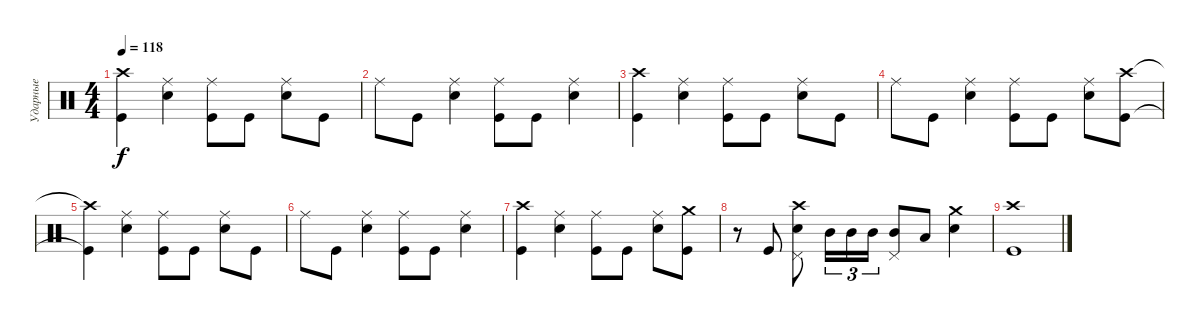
\track ("Ударные" "Ударные") {instrument percussion}
\staff {score}
\articulation defaults
\ts (4 4)
\tempo 118
\clef neutral
\ks c
("Crash high (hit)" "Kick (hit)").4{dy f} ("Ride (middle)" "Snare (hit) 2").4 ("Ride (middle)" "Kick (hit)").8 "Kick (hit)".8 ("Ride (middle)" "Snare (hit) 2").8 "Kick (hit)".8 |
"Ride (middle)".8 "Kick (hit)".8 ("Ride (middle)" "Snare (hit) 2").4 ("Ride (middle)" "Kick (hit)").8 "Kick (hit)".8 ("Ride (middle)" "Snare (hit) 2").4 |
("Crash high (hit)" "Kick (hit)").4 ("Ride (middle)" "Snare (hit) 2").4 ("Ride (middle)" "Kick (hit)").8 "Kick (hit)".8 ("Ride (middle)" "Snare (hit) 2").8 "Kick (hit)".8 |
"Ride (middle)".8 "Kick (hit)".8 ("Ride (middle)" "Snare (hit) 2").4 ("Ride (middle)" "Kick (hit)").8 "Kick (hit)".8 ("Ride (middle)" "Snare (hit) 2").8 ("Crash high (hit)" "Kick (hit)").8 |
("Crash high (hit)"{t} "Kick (hit)"{t}).4 ("Ride (middle)" "Snare (hit) 2").4 ("Ride (middle)" "Kick (hit)").8 "Kick (hit)".8 ("Ride (middle)" "Snare (hit) 2").8 "Kick (hit)".8 |
"Ride (middle)".8 "Kick (hit)".8 ("Ride (middle)" "Snare (hit) 2").4 ("Ride (middle)" "Kick (hit)").8 "Kick (hit)".8 ("Ride (middle)" "Snare (hit) 2").4 |
("Crash high (hit)" "Kick (hit)").4 ("Ride (middle)" "Snare (hit) 2").4 ("Ride (middle)" "Kick (hit)").8 "Kick (hit)".8 ("Ride (middle)" "Snare (hit) 2").8 ("Crash medium (hit)" "Kick (hit)").8 |
r.8 "Kick (hit)".8 ("Crash high (hit)" "Snare (hit) 2" "Pedal Hi-Hat (hit)").8 "Mid Tom (hit)".16{tu (3 2)} "Mid Tom (hit)".16{tu (3 2)} "Mid Tom (hit)".16{tu (3 2)} ("Mid Tom (hit)" "Pedal Hi-Hat (hit)").8 "Low Tom (hit)".8 ("Crash medium (hit)" "Snare (hit) 2").4 |
("Crash high (hit)" "Kick (hit)").1
